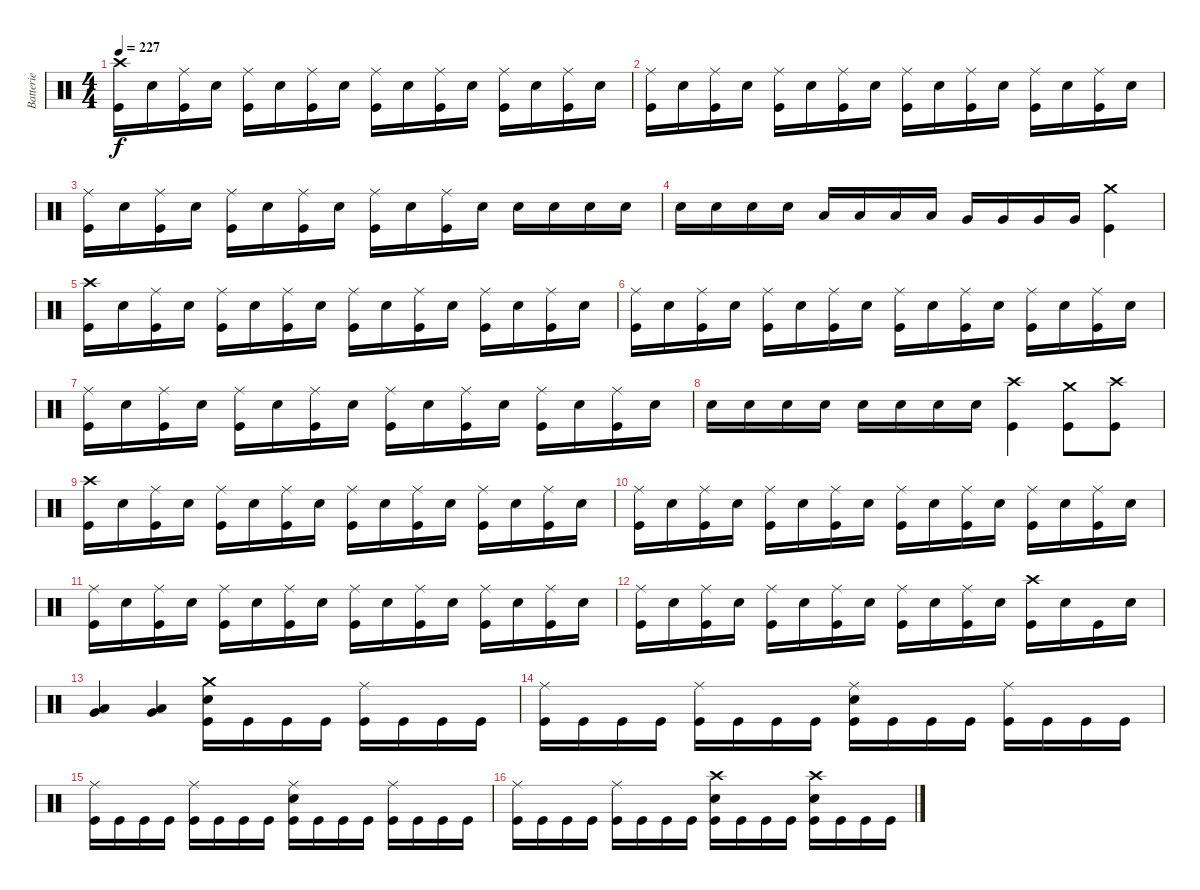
\track ("Batterie" "Batterie") {instrument percussion}
\staff {score}
\articulation defaults
\ts (4 4)
\tempo 227
\clef neutral
\ks c
("Crash high (hit)" "Kick (hit)").16{dy f} "Electric Snare (hit)".16 ("Ride (middle)" "Kick (hit)").16 "Electric Snare (hit)".16 ("Ride (middle)" "Kick (hit)").16 "Electric Snare (hit)".16 ("Ride (middle)" "Kick (hit)").16 "Electric Snare (hit)".16 ("Ride (middle)" "Kick (hit)").16 "Electric Snare (hit)".16 ("Ride (middle)" "Kick (hit)").16 "Electric Snare (hit)".16 ("Ride (middle)" "Kick (hit)").16 "Electric Snare (hit)".16 ("Ride (middle)" "Kick (hit)").16 "Electric Snare (hit)".16 |
("Ride (middle)" "Kick (hit)").16 "Electric Snare (hit)".16 ("Ride (middle)" "Kick (hit)").16 "Electric Snare (hit)".16 ("Ride (middle)" "Kick (hit)").16 "Electric Snare (hit)".16 ("Ride (middle)" "Kick (hit)").16 "Electric Snare (hit)".16 ("Ride (middle)" "Kick (hit)").16 "Electric Snare (hit)".16 ("Ride (middle)" "Kick (hit)").16 "Electric Snare (hit)".16 ("Ride (middle)" "Kick (hit)").16 "Electric Snare (hit)".16 ("Ride (middle)" "Kick (hit)").16 "Electric Snare (hit)".16 |
("Ride (middle)" "Kick (hit)").16 "Electric Snare (hit)".16 ("Ride (middle)" "Kick (hit)").16 "Electric Snare (hit)".16 ("Ride (middle)" "Kick (hit)").16 "Electric Snare (hit)".16 ("Ride (middle)" "Kick (hit)").16 "Electric Snare (hit)".16 ("Ride (middle)" "Kick (hit)").16 "Electric Snare (hit)".16 ("Ride (middle)" "Kick (hit)").16 "Electric Snare (hit)".16 "Electric Snare (hit)".16 "Electric Snare (hit)".16 "Electric Snare (hit)".16 "Electric Snare (hit)".16 |
"Electric Snare (hit)".16 "Electric Snare (hit)".16 "Electric Snare (hit)".16 "Electric Snare (hit)".16 "Low Tom (hit)".16 "Low Tom (hit)".16 "Low Tom (hit)".16 "Low Tom (hit)".16 "Very Low Tom (hit)".16 "Very Low Tom (hit)".16 "Very Low Tom (hit)".16 "Very Low Tom (hit)".16 ("Crash medium (hit)" "Kick (hit)").4 |
("Crash high (hit)" "Kick (hit)").16 "Electric Snare (hit)".16 ("Ride (middle)" "Kick (hit)").16 "Electric Snare (hit)".16 ("Ride (middle)" "Kick (hit)").16 "Electric Snare (hit)".16 ("Ride (middle)" "Kick (hit)").16 "Electric Snare (hit)".16 ("Ride (middle)" "Kick (hit)").16 "Electric Snare (hit)".16 ("Ride (middle)" "Kick (hit)").16 "Electric Snare (hit)".16 ("Ride (middle)" "Kick (hit)").16 "Electric Snare (hit)".16 ("Ride (middle)" "Kick (hit)").16 "Electric Snare (hit)".16 |
("Ride (middle)" "Kick (hit)").16 "Electric Snare (hit)".16 ("Ride (middle)" "Kick (hit)").16 "Electric Snare (hit)".16 ("Ride (middle)" "Kick (hit)").16 "Electric Snare (hit)".16 ("Ride (middle)" "Kick (hit)").16 "Electric Snare (hit)".16 ("Ride (middle)" "Kick (hit)").16 "Electric Snare (hit)".16 ("Ride (middle)" "Kick (hit)").16 "Electric Snare (hit)".16 ("Ride (middle)" "Kick (hit)").16 "Electric Snare (hit)".16 ("Ride (middle)" "Kick (hit)").16 "Electric Snare (hit)".16 |
("Ride (middle)" "Kick (hit)").16 "Electric Snare (hit)".16 ("Ride (middle)" "Kick (hit)").16 "Electric Snare (hit)".16 ("Ride (middle)" "Kick (hit)").16 "Electric Snare (hit)".16 ("Ride (middle)" "Kick (hit)").16 "Electric Snare (hit)".16 ("Ride (middle)" "Kick (hit)").16 "Electric Snare (hit)".16 ("Ride (middle)" "Kick (hit)").16 "Electric Snare (hit)".16 ("Ride (middle)" "Kick (hit)").16 "Electric Snare (hit)".16 ("Ride (middle)" "Kick (hit)").16 "Electric Snare (hit)".16 |
"Electric Snare (hit)".16 "Electric Snare (hit)".16 "Electric Snare (hit)".16 "Electric Snare (hit)".16 "Electric Snare (hit)".16 "Electric Snare (hit)".16 "Electric Snare (hit)".16 "Electric Snare (hit)".16 ("Crash high (hit)" "Kick (hit)").4 ("Crash medium (hit)" "Kick (hit)").8 ("Crash high (hit)" "Kick (hit)").8 |
("Crash high (hit)" "Kick (hit)").16 "Electric Snare (hit)".16 ("Ride (middle)" "Kick (hit)").16 "Electric Snare (hit)".16 ("Ride (middle)" "Kick (hit)").16 "Electric Snare (hit)".16 ("Ride (middle)" "Kick (hit)").16 "Electric Snare (hit)".16 ("Ride (middle)" "Kick (hit)").16 "Electric Snare (hit)".16 ("Ride (middle)" "Kick (hit)").16 "Electric Snare (hit)".16 ("Ride (middle)" "Kick (hit)").16 "Electric Snare (hit)".16 ("Ride (middle)" "Kick (hit)").16 "Electric Snare (hit)".16 |
("Ride (middle)" "Kick (hit)").16 "Electric Snare (hit)".16 ("Ride (middle)" "Kick (hit)").16 "Electric Snare (hit)".16 ("Ride (middle)" "Kick (hit)").16 "Electric Snare (hit)".16 ("Ride (middle)" "Kick (hit)").16 "Electric Snare (hit)".16 ("Ride (middle)" "Kick (hit)").16 "Electric Snare (hit)".16 ("Ride (middle)" "Kick (hit)").16 "Electric Snare (hit)".16 ("Ride (middle)" "Kick (hit)").16 "Electric Snare (hit)".16 ("Ride (middle)" "Kick (hit)").16 "Electric Snare (hit)".16 |
("Ride (middle)" "Kick (hit)").16 "Electric Snare (hit)".16 ("Ride (middle)" "Kick (hit)").16 "Electric Snare (hit)".16 ("Ride (middle)" "Kick (hit)").16 "Electric Snare (hit)".16 ("Ride (middle)" "Kick (hit)").16 "Electric Snare (hit)".16 ("Ride (middle)" "Kick (hit)").16 "Electric Snare (hit)".16 ("Ride (middle)" "Kick (hit)").16 "Electric Snare (hit)".16 ("Ride (middle)" "Kick (hit)").16 "Electric Snare (hit)".16 ("Ride (middle)" "Kick (hit)").16 "Electric Snare (hit)".16 |
("Ride (middle)" "Kick (hit)").16 "Electric Snare (hit)".16 ("Ride (middle)" "Kick (hit)").16 "Electric Snare (hit)".16 ("Ride (middle)" "Kick (hit)").16 "Electric Snare (hit)".16 ("Ride (middle)" "Kick (hit)").16 "Electric Snare (hit)".16 ("Ride (middle)" "Kick (hit)").16 "Electric Snare (hit)".16 ("Ride (middle)" "Kick (hit)").16 "Electric Snare (hit)".16 ("Crash high (hit)" "Kick (hit)").16 "Electric Snare (hit)".16 "Kick (hit)".16 "Electric Snare (hit)".16 |
("Low Tom (hit)" "Very Low Tom (hit)").4 ("Low Tom (hit)" "Very Low Tom (hit)").4 ("Crash medium (hit)" "Electric Snare (hit)" "Kick (hit)").16 "Kick (hit)".16 "Kick (hit)".16 "Kick (hit)".16 ("Ride (middle)" "Kick (hit)").16 "Kick (hit)".16 "Kick (hit)".16 "Kick (hit)".16 |
("Ride (middle)" "Kick (hit)").16 "Kick (hit)".16 "Kick (hit)".16 "Kick (hit)".16 ("Ride (middle)" "Kick (hit)").16 "Kick (hit)".16 "Kick (hit)".16 "Kick (hit)".16 ("Ride (middle)" "Electric Snare (hit)" "Kick (hit)").16 "Kick (hit)".16 "Kick (hit)".16 "Kick (hit)".16 ("Ride (middle)" "Kick (hit)").16 "Kick (hit)".16 "Kick (hit)".16 "Kick (hit)".16 |
("Ride (middle)" "Kick (hit)").16 "Kick (hit)".16 "Kick (hit)".16 "Kick (hit)".16 ("Ride (middle)" "Kick (hit)").16 "Kick (hit)".16 "Kick (hit)".16 "Kick (hit)".16 ("Ride (middle)" "Electric Snare (hit)" "Kick (hit)").16 "Kick (hit)".16 "Kick (hit)".16 "Kick (hit)".16 ("Ride (middle)" "Kick (hit)").16 "Kick (hit)".16 "Kick (hit)".16 "Kick (hit)".16 |
("Ride (middle)" "Kick (hit)").16 "Kick (hit)".16 "Kick (hit)".16 "Kick (hit)".16 ("Ride (middle)" "Kick (hit)").16 "Kick (hit)".16 "Kick (hit)".16 "Kick (hit)".16 ("Crash high (hit)" "Electric Snare (hit)" "Kick (hit)").16 "Kick (hit)".16 "Kick (hit)".16 "Kick (hit)".16 ("Crash high (hit)" "Electric Snare (hit)" "Kick (hit)").16 "Kick (hit)".16 "Kick (hit)".16 "Kick (hit)".16
